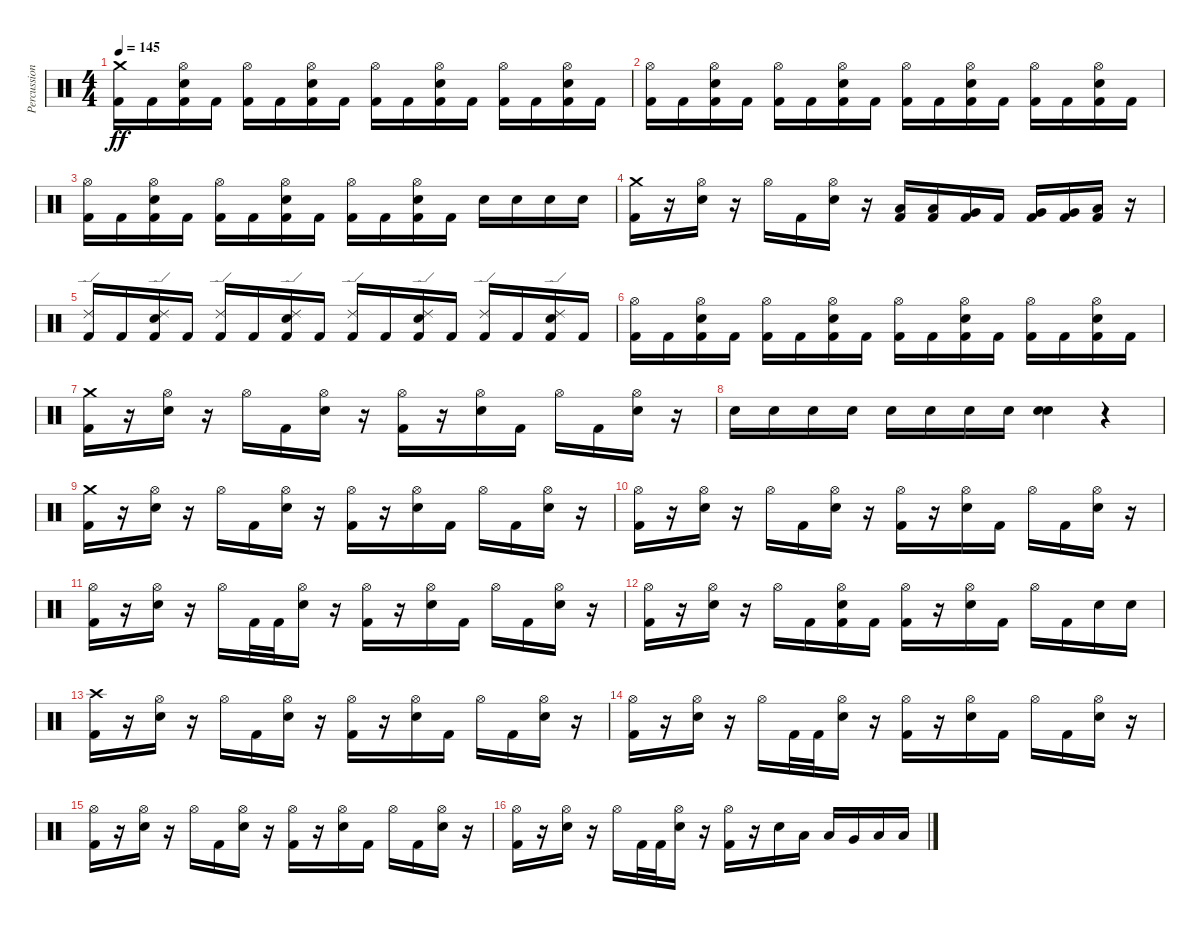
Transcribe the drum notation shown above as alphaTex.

\track ("Percussion" "Percussion") {instrument percussion}
\staff {score}
\articulation defaults
\ts (4 4)
\tempo 145
\clef neutral
\ks c
("Crash medium (hit)" "Kick (hit) 2").16{dy ff} "Kick (hit) 2".16 ("Electric Snare (hit)" "Hi-Hat (open)" "Kick (hit) 2").16 "Kick (hit) 2".16 ("Hi-Hat (open)" "Kick (hit) 2").16 "Kick (hit) 2".16 ("Electric Snare (hit)" "Hi-Hat (open)" "Kick (hit) 2").16 "Kick (hit) 2".16 ("Hi-Hat (open)" "Kick (hit) 2").16 "Kick (hit) 2".16 ("Electric Snare (hit)" "Hi-Hat (open)" "Kick (hit) 2").16 "Kick (hit) 2".16 ("Hi-Hat (open)" "Kick (hit) 2").16 "Kick (hit) 2".16 ("Electric Snare (hit)" "Hi-Hat (open)" "Kick (hit) 2").16 "Kick (hit) 2".16 |
("Hi-Hat (open)" "Kick (hit) 2").16 "Kick (hit) 2".16 ("Electric Snare (hit)" "Hi-Hat (open)" "Kick (hit) 2").16 "Kick (hit) 2".16 ("Hi-Hat (open)" "Kick (hit) 2").16 "Kick (hit) 2".16 ("Electric Snare (hit)" "Hi-Hat (open)" "Kick (hit) 2").16 "Kick (hit) 2".16 ("Hi-Hat (open)" "Kick (hit) 2").16 "Kick (hit) 2".16 ("Electric Snare (hit)" "Hi-Hat (open)" "Kick (hit) 2").16 "Kick (hit) 2".16 ("Hi-Hat (open)" "Kick (hit) 2").16 "Kick (hit) 2".16 ("Electric Snare (hit)" "Hi-Hat (open)" "Kick (hit) 2").16 "Kick (hit) 2".16 |
("Hi-Hat (open)" "Kick (hit) 2").16 "Kick (hit) 2".16 ("Electric Snare (hit)" "Hi-Hat (open)" "Kick (hit) 2").16 "Kick (hit) 2".16 ("Hi-Hat (open)" "Kick (hit) 2").16 "Kick (hit) 2".16 ("Electric Snare (hit)" "Hi-Hat (open)" "Kick (hit) 2").16 "Kick (hit) 2".16 ("Hi-Hat (open)" "Kick (hit) 2").16 "Kick (hit) 2".16 ("Electric Snare (hit)" "Hi-Hat (open)" "Kick (hit) 2").16 "Kick (hit) 2".16 "Electric Snare (hit)".16 "Electric Snare (hit)".16 "Electric Snare (hit)".16 "Electric Snare (hit)".16 |
("Crash medium (hit)" "Kick (hit) 2").16 r.16 ("Hi-Hat (open)" "Electric Snare (hit)").16 r.16 "Hi-Hat (open)".16 "Kick (hit) 2".16 ("Hi-Hat (open)" "Electric Snare (hit)").16 r.16 ("Low Tom (hit)" "Kick (hit) 2").16 ("Low Tom (hit)" "Kick (hit) 2").16 ("Very Low Tom (hit)" "Kick (hit) 2").16 "Kick (hit) 2".16 ("Very Low Tom (hit)" "Kick (hit) 2").16 ("Very Low Tom (hit)" "Kick (hit) 2").16 ("Low Floor Tom (hit)" "Kick (hit) 2").16 r.16 |
("Ride (edge) 2" "Kick (hit) 2").16 "Kick (hit) 2".16 ("Electric Snare (hit)" "Ride (edge) 2" "Kick (hit) 2").16 "Kick (hit) 2".16 ("Ride (edge) 2" "Kick (hit) 2").16 "Kick (hit) 2".16 ("Electric Snare (hit)" "Ride (edge) 2" "Kick (hit) 2").16 "Kick (hit) 2".16 ("Ride (edge) 2" "Kick (hit) 2").16 "Kick (hit) 2".16 ("Electric Snare (hit)" "Ride (edge) 2" "Kick (hit) 2").16 "Kick (hit) 2".16 ("Ride (edge) 2" "Kick (hit) 2").16 "Kick (hit) 2".16 ("Electric Snare (hit)" "Ride (edge) 2" "Kick (hit) 2").16 "Kick (hit) 2".16 |
("Hi-Hat (open)" "Kick (hit) 2").16 "Kick (hit) 2".16 ("Electric Snare (hit)" "Hi-Hat (open)" "Kick (hit) 2").16 "Kick (hit) 2".16 ("Hi-Hat (open)" "Kick (hit) 2").16 "Kick (hit) 2".16 ("Electric Snare (hit)" "Hi-Hat (open)" "Kick (hit) 2").16 "Kick (hit) 2".16 ("Hi-Hat (open)" "Kick (hit) 2").16 "Kick (hit) 2".16 ("Electric Snare (hit)" "Hi-Hat (open)" "Kick (hit) 2").16 "Kick (hit) 2".16 ("Hi-Hat (open)" "Kick (hit) 2").16 "Kick (hit) 2".16 ("Electric Snare (hit)" "Hi-Hat (open)" "Kick (hit) 2").16 "Kick (hit) 2".16 |
("Crash medium (hit)" "Kick (hit) 2").16 r.16 ("Hi-Hat (open)" "Electric Snare (hit)").16 r.16 "Hi-Hat (open)".16 "Kick (hit) 2".16 ("Hi-Hat (open)" "Electric Snare (hit)").16 r.16 ("Hi-Hat (open)" "Kick (hit) 2").16 r.16 ("Hi-Hat (open)" "Electric Snare (hit)").16 "Kick (hit) 2".16 "Hi-Hat (open)".16 "Kick (hit) 2".16 ("Hi-Hat (open)" "Electric Snare (hit)").16 r.16 |
"Electric Snare (hit)".16 "Electric Snare (hit)".16 "Electric Snare (hit)".16 "Electric Snare (hit)".16 "Electric Snare (hit)".16 "Electric Snare (hit)".16 "Electric Snare (hit)".16 "Electric Snare (hit)".16 ("Electric Snare (hit)" "Electric Snare (hit)").4 r.4 |
("Crash medium (hit)" "Kick (hit) 2").16 r.16 ("Hi-Hat (open)" "Electric Snare (hit)").16 r.16 "Hi-Hat (open)".16 "Kick (hit) 2".16 ("Hi-Hat (open)" "Electric Snare (hit)").16 r.16 ("Hi-Hat (open)" "Kick (hit) 2").16 r.16 ("Hi-Hat (open)" "Electric Snare (hit)").16 "Kick (hit) 2".16 "Hi-Hat (open)".16 "Kick (hit) 2".16 ("Hi-Hat (open)" "Electric Snare (hit)").16 r.16 |
("Hi-Hat (open)" "Kick (hit) 2").16 r.16 ("Hi-Hat (open)" "Electric Snare (hit)").16 r.16 "Hi-Hat (open)".16 "Kick (hit) 2".16 ("Hi-Hat (open)" "Electric Snare (hit)").16 r.16 ("Hi-Hat (open)" "Kick (hit) 2").16 r.16 ("Hi-Hat (open)" "Electric Snare (hit)").16 "Kick (hit) 2".16 "Hi-Hat (open)".16 "Kick (hit) 2".16 ("Hi-Hat (open)" "Electric Snare (hit)").16 r.16 |
("Hi-Hat (open)" "Kick (hit) 2").16 r.16 ("Hi-Hat (open)" "Electric Snare (hit)").16 r.16 "Hi-Hat (open)".16 "Kick (hit) 2".32 "Kick (hit) 2".32 ("Hi-Hat (open)" "Electric Snare (hit)").16 r.16 ("Hi-Hat (open)" "Kick (hit) 2").16 r.16 ("Hi-Hat (open)" "Electric Snare (hit)").16 "Kick (hit) 2".16 "Hi-Hat (open)".16 "Kick (hit) 2".16 ("Hi-Hat (open)" "Electric Snare (hit)").16 r.16 |
("Hi-Hat (open)" "Kick (hit) 2").16 r.16 ("Hi-Hat (open)" "Electric Snare (hit)").16 r.16 "Hi-Hat (open)".16 "Kick (hit) 2".16 ("Electric Snare (hit)" "Hi-Hat (open)" "Kick (hit) 2").16 "Kick (hit) 2".16 ("Hi-Hat (open)" "Kick (hit) 2").16 r.16 ("Hi-Hat (open)" "Electric Snare (hit)").16 "Kick (hit) 2".16 "Hi-Hat (open)".16 "Kick (hit) 2".16 "Electric Snare (hit)".16 "Electric Snare (hit)".16 |
("Crash high (hit)" "Kick (hit) 2").16 r.16 ("Hi-Hat (open)" "Electric Snare (hit)").16 r.16 "Hi-Hat (open)".16 "Kick (hit) 2".16 ("Hi-Hat (open)" "Electric Snare (hit)").16 r.16 ("Hi-Hat (open)" "Kick (hit) 2").16 r.16 ("Hi-Hat (open)" "Electric Snare (hit)").16 "Kick (hit) 2".16 "Hi-Hat (open)".16 "Kick (hit) 2".16 ("Hi-Hat (open)" "Electric Snare (hit)").16 r.16 |
("Hi-Hat (open)" "Kick (hit) 2").16 r.16 ("Hi-Hat (open)" "Electric Snare (hit)").16 r.16 "Hi-Hat (open)".16 "Kick (hit) 2".32 "Kick (hit) 2".32 ("Hi-Hat (open)" "Electric Snare (hit)").16 r.16 ("Hi-Hat (open)" "Kick (hit) 2").16 r.16 ("Hi-Hat (open)" "Electric Snare (hit)").16 "Kick (hit) 2".16 "Hi-Hat (open)".16 "Kick (hit) 2".16 ("Hi-Hat (open)" "Electric Snare (hit)").16 r.16 |
("Hi-Hat (open)" "Kick (hit) 2").16 r.16 ("Hi-Hat (open)" "Electric Snare (hit)").16 r.16 "Hi-Hat (open)".16 "Kick (hit) 2".16 ("Hi-Hat (open)" "Electric Snare (hit)").16 r.16 ("Hi-Hat (open)" "Kick (hit) 2").16 r.16 ("Hi-Hat (open)" "Electric Snare (hit)").16 "Kick (hit) 2".16 "Hi-Hat (open)".16 "Kick (hit) 2".16 ("Hi-Hat (open)" "Electric Snare (hit)").16 r.16 |
("Hi-Hat (open)" "Kick (hit) 2").16 r.16 ("Hi-Hat (open)" "Electric Snare (hit)").16 r.16 "Hi-Hat (open)".16 "Kick (hit) 2".32 "Kick (hit) 2".32 ("Hi-Hat (open)" "Electric Snare (hit)").16 r.16 ("Hi-Hat (open)" "Kick (hit) 2").16 r.16 "Electric Snare (hit)".16 "Low Tom (hit)".16 "Low Tom (hit)".16 "Very Low Tom (hit)".16 "Low Floor Tom (hit)".16 "Low Floor Tom (hit)".16
